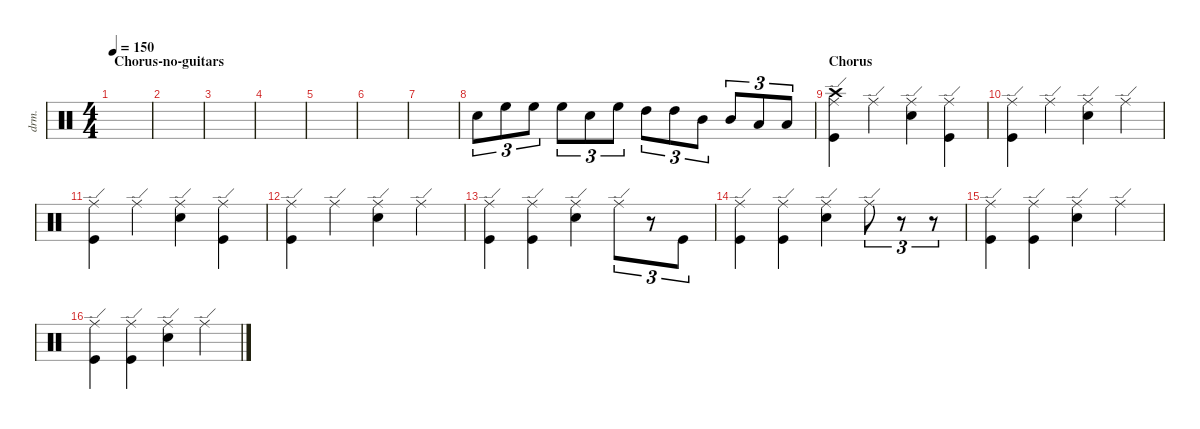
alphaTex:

\defaultSystemsLayout 4
\hideDynamics
\bracketExtendMode nobrackets
\otherSystemsTrackNameOrientation horizontal
\track ("Drumkit" "drm.") {solo instrument percussion}
\staff {score}
\articulation defaults
\ts (4 4)
\section ("" "Chorus-no-guitars")
\scale
1.16034
\tempo 150
\accidentals auto
\clef neutral
\ottava regular
\simile none
\ks aminor
|
\scale
0.972042 |
\scale
0.972042 |
\scale
0.972042 |
\scale
0.972042 |
\scale
0.972042 |
\scale
0.972042 |
\scale
1.00741 "Snare (hit) 2".8{tu (3 2) beam Down} "High Floor Tom (hit)".8{tu (3 2) beam Down} "High Floor Tom (hit)".8{tu (3 2) beam Down} "High Floor Tom (hit)".8{tu (3 2) beam Down} "Snare (hit) 2".8{tu (3 2) beam Down} "High Floor Tom (hit)".8{tu (3 2) beam Down} "High Tom (hit)".8{tu (3 2) beam Down} "High Tom (hit)".8{tu (3 2) beam Down} "Mid Tom (hit)".8{tu (3 2) beam Down} "Mid Tom (hit)".8{tu (3 2) beam Up} "Low Tom (hit)".8{tu (3 2) beam Up} "Low Tom (hit)".8{tu (3 2) beam Up} |
\section ("" "Chorus")
\scale
1.16476 ("Kick (hit)" "Ride (edge)" "Crash high (hit)").4{beam Down} "Ride (edge)".4{beam Down} ("Ride (edge)" "Snare (hit) 2").4{beam Down} ("Kick (hit)" "Ride (edge)").4{beam Down} |
\scale
0.976463 ("Kick (hit)" "Ride (edge)").4{beam Down} "Ride (edge)".4{beam Down} ("Ride (edge)" "Snare (hit) 2").4{beam Down} "Ride (edge)".4{beam Down} |
\scale
0.976463 ("Kick (hit)" "Ride (edge)").4{beam Down} "Ride (edge)".4{beam Down} ("Ride (edge)" "Snare (hit) 2").4{beam Down} ("Kick (hit)" "Ride (edge)").4{beam Down} |
\scale
0.976463 ("Kick (hit)" "Ride (edge)").4{beam Down} "Ride (edge)".4{beam Down} ("Ride (edge)" "Snare (hit) 2").4{beam Down} "Ride (edge)".4{beam Down} |
\scale
0.976463 ("Kick (hit)" "Ride (edge)").4{beam Down} ("Ride (edge)" "Kick (hit)").4{beam Down} ("Ride (edge)" "Snare (hit) 2").4{beam Down} "Ride (edge)".8{tu (3 2) beam Down} r.8{tu (3 2) beam Down} "Kick (hit)".8{tu (3 2) beam Down} |
\scale
0.976463 ("Kick (hit)" "Ride (edge)").4{beam Down} ("Ride (edge)" "Kick (hit)").4{beam Down} ("Ride (edge)" "Snare (hit) 2").4{beam Down} "Ride (edge)".8{tu (3 2) beam Down} r.8{tu (3 2) beam Down} r.8{tu (3 2) beam Down} |
\scale
0.976463 ("Kick (hit)" "Ride (edge)").4{beam Down} ("Ride (edge)" "Kick (hit)").4{beam Down} ("Ride (edge)" "Snare (hit) 2").4{beam Down} "Ride (edge)".4{beam Down} |
\scale
0.976463 ("Kick (hit)" "Ride (edge)").4{beam Down} ("Ride (edge)" "Kick (hit)").4{beam Down} ("Ride (edge)" "Snare (hit) 2").4{beam Down} "Ride (edge)".4{beam Down}
